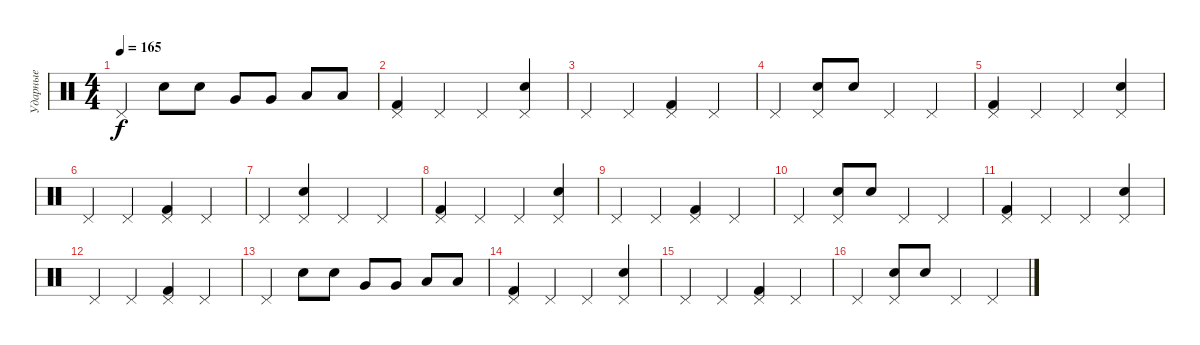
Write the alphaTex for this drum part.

\track ("Ударные" "Ударные") {instrument percussion}
\staff {score}
\articulation defaults
\ts (4 4)
\tempo 165
\clef neutral
\ks c "Pedal Hi-Hat (hit)".4{dy f} "Snare (hit) 2".8 "Snare (hit) 2".8 "Very Low Tom (hit)".8 "Very Low Tom (hit)".8 "Low Floor Tom (hit)".8 "Low Floor Tom (hit)".8
|
("Pedal Hi-Hat (hit)" "Kick (hit) 2").4 "Pedal Hi-Hat (hit)".4 "Pedal Hi-Hat (hit)".4 ("Pedal Hi-Hat (hit)" "Snare (hit) 2").4 |
"Pedal Hi-Hat (hit)".4 "Pedal Hi-Hat (hit)".4 ("Pedal Hi-Hat (hit)" "Kick (hit) 2").4 "Pedal Hi-Hat (hit)".4 |
"Pedal Hi-Hat (hit)".4 ("Pedal Hi-Hat (hit)" "Snare (hit) 2").8 "Snare (hit) 2".8 "Pedal Hi-Hat (hit)".4 "Pedal Hi-Hat (hit)".4 |
("Pedal Hi-Hat (hit)" "Kick (hit) 2").4 "Pedal Hi-Hat (hit)".4 "Pedal Hi-Hat (hit)".4 ("Pedal Hi-Hat (hit)" "Snare (hit) 2").4 |
"Pedal Hi-Hat (hit)".4 "Pedal Hi-Hat (hit)".4 ("Pedal Hi-Hat (hit)" "Kick (hit) 2").4 "Pedal Hi-Hat (hit)".4 |
"Pedal Hi-Hat (hit)".4 ("Pedal Hi-Hat (hit)" "Snare (hit) 2").4 "Pedal Hi-Hat (hit)".4 "Pedal Hi-Hat (hit)".4 |
("Pedal Hi-Hat (hit)" "Kick (hit) 2").4 "Pedal Hi-Hat (hit)".4 "Pedal Hi-Hat (hit)".4 ("Pedal Hi-Hat (hit)" "Snare (hit) 2").4 |
"Pedal Hi-Hat (hit)".4 "Pedal Hi-Hat (hit)".4 ("Pedal Hi-Hat (hit)" "Kick (hit) 2").4 "Pedal Hi-Hat (hit)".4 |
"Pedal Hi-Hat (hit)".4 ("Pedal Hi-Hat (hit)" "Snare (hit) 2").8 "Snare (hit) 2".8 "Pedal Hi-Hat (hit)".4 "Pedal Hi-Hat (hit)".4 |
("Pedal Hi-Hat (hit)" "Kick (hit) 2").4 "Pedal Hi-Hat (hit)".4 "Pedal Hi-Hat (hit)".4 ("Pedal Hi-Hat (hit)" "Snare (hit) 2").4 |
"Pedal Hi-Hat (hit)".4 "Pedal Hi-Hat (hit)".4 ("Pedal Hi-Hat (hit)" "Kick (hit) 2").4 "Pedal Hi-Hat (hit)".4 |
"Pedal Hi-Hat (hit)".4 "Snare (hit) 2".8 "Snare (hit) 2".8 "Very Low Tom (hit)".8 "Very Low Tom (hit)".8 "Low Floor Tom (hit)".8 "Low Floor Tom (hit)".8 |
("Pedal Hi-Hat (hit)" "Kick (hit) 2").4 "Pedal Hi-Hat (hit)".4 "Pedal Hi-Hat (hit)".4 ("Pedal Hi-Hat (hit)" "Snare (hit) 2").4 |
"Pedal Hi-Hat (hit)".4 "Pedal Hi-Hat (hit)".4 ("Pedal Hi-Hat (hit)" "Kick (hit) 2").4 "Pedal Hi-Hat (hit)".4 |
"Pedal Hi-Hat (hit)".4 ("Pedal Hi-Hat (hit)" "Snare (hit) 2").8 "Snare (hit) 2".8 "Pedal Hi-Hat (hit)".4 "Pedal Hi-Hat (hit)".4
